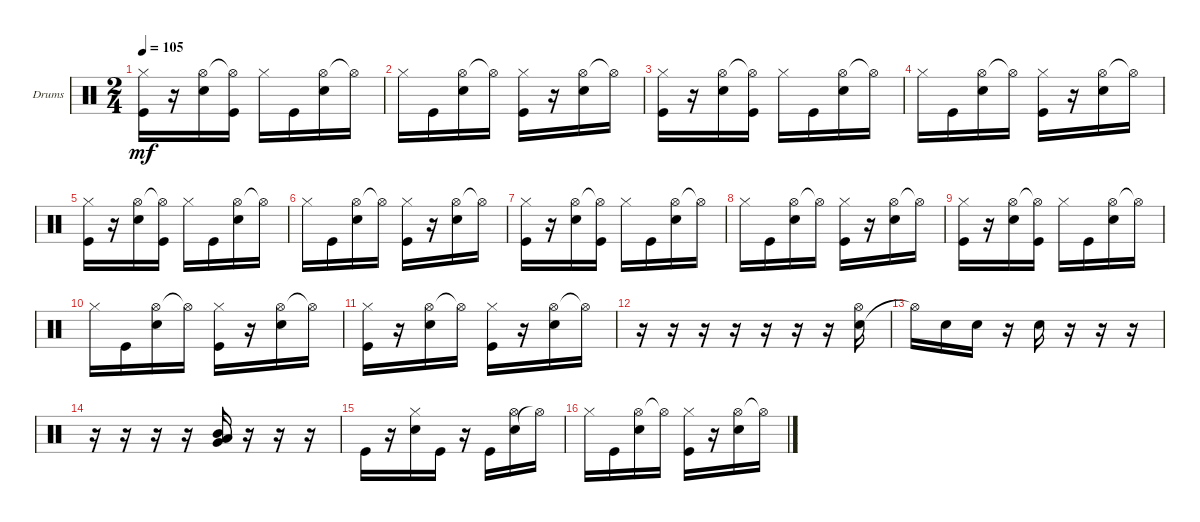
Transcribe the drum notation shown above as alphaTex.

\defaultSystemsLayout 4
\bracketExtendMode groupsimilarinstruments
\firstSystemTrackNameOrientation horizontal
\otherSystemsTrackNameOrientation horizontal
\track ("Godd" "Drums") {instrument percussion}
\staff {score}
\articulation defaults
\ts (2 4)
\tempo 105
\clef neutral
\ks c
("Hi-Hat (closed)" "Kick (hit)").16{dy mf} r.16 ("Hi-Hat (open)" "Snare (hit) 2").16 ("Hi-Hat (open)"{t} "Kick (hit)").16 "Hi-Hat (closed)".16 "Kick (hit)".16 ("Hi-Hat (open)" "Snare (hit) 2").16 "Hi-Hat (open)"{t}.16 |
"Hi-Hat (closed)".16 "Kick (hit)".16 ("Hi-Hat (open)" "Snare (hit) 2").16 "Hi-Hat (open)"{t}.16 ("Kick (hit)" "Hi-Hat (closed)").16 r.16 ("Hi-Hat (open)" "Snare (hit) 2").16 "Hi-Hat (open)"{t}.16 |
("Hi-Hat (closed)" "Kick (hit)").16 r.16 ("Hi-Hat (open)" "Snare (hit) 2").16 ("Hi-Hat (open)"{t} "Kick (hit)").16 "Hi-Hat (closed)".16 "Kick (hit)".16 ("Hi-Hat (open)" "Snare (hit) 2").16 "Hi-Hat (open)"{t}.16 |
"Hi-Hat (closed)".16 "Kick (hit)".16 ("Hi-Hat (open)" "Snare (hit) 2").16 "Hi-Hat (open)"{t}.16 ("Kick (hit)" "Hi-Hat (closed)").16 r.16 ("Hi-Hat (open)" "Snare (hit) 2").16 "Hi-Hat (open)"{t}.16 |
("Hi-Hat (closed)" "Kick (hit)").16 r.16 ("Hi-Hat (open)" "Snare (hit) 2").16 ("Hi-Hat (open)"{t} "Kick (hit)").16 "Hi-Hat (closed)".16 "Kick (hit)".16 ("Hi-Hat (open)" "Snare (hit) 2").16 "Hi-Hat (open)"{t}.16 |
"Hi-Hat (closed)".16 "Kick (hit)".16 ("Hi-Hat (open)" "Snare (hit) 2").16 "Hi-Hat (open)"{t}.16 ("Kick (hit)" "Hi-Hat (closed)").16 r.16 ("Hi-Hat (open)" "Snare (hit) 2").16 "Hi-Hat (open)"{t}.16 |
("Hi-Hat (closed)" "Kick (hit)").16 r.16 ("Hi-Hat (open)" "Snare (hit) 2").16 ("Hi-Hat (open)"{t} "Kick (hit)").16 "Hi-Hat (closed)".16 "Kick (hit)".16 ("Hi-Hat (open)" "Snare (hit) 2").16 "Hi-Hat (open)"{t}.16 |
"Hi-Hat (closed)".16 "Kick (hit)".16 ("Hi-Hat (open)" "Snare (hit) 2").16 "Hi-Hat (open)"{t}.16 ("Kick (hit)" "Hi-Hat (closed)").16 r.16 ("Hi-Hat (open)" "Snare (hit) 2").16 "Hi-Hat (open)"{t}.16 |
("Hi-Hat (closed)" "Kick (hit)").16 r.16 ("Hi-Hat (open)" "Snare (hit) 2").16 ("Hi-Hat (open)"{t} "Kick (hit)").16 "Hi-Hat (closed)".16 "Kick (hit)".16 ("Hi-Hat (open)" "Snare (hit) 2").16 "Hi-Hat (open)"{t}.16 |
"Hi-Hat (closed)".16 "Kick (hit)".16 ("Hi-Hat (open)" "Snare (hit) 2").16 "Hi-Hat (open)"{t}.16 ("Kick (hit)" "Hi-Hat (closed)").16 r.16 ("Hi-Hat (open)" "Snare (hit) 2").16 "Hi-Hat (open)"{t}.16 |
("Hi-Hat (closed)" "Kick (hit)").16 r.16 ("Hi-Hat (open)" "Snare (hit) 2").16 "Hi-Hat (open)"{t}.16 ("Hi-Hat (closed)" "Kick (hit)").16 r.16 ("Hi-Hat (open)" "Snare (hit) 2").16 "Hi-Hat (open)"{t}.16 |
r.16 r.16 r.16 r.16 r.16 r.16 r.16 ("Snare (hit) 2" "Hi-Hat (open)").16 |
"Hi-Hat (open)"{t}.16 "Snare (hit) 2".16 "Snare (hit) 2".16 r.16 "Snare (hit) 2".16 r.16 r.16 r.16 |
r.16 r.16 r.16 r.16 ("Very Low Tom (hit)" "Low Tom (hit)" "Mid Tom (hit)").16 r.16 r.16 r.16 |
"Kick (hit)".16 r.16 ("Snare (hit) 2" "Hi-Hat (closed)").16 "Kick (hit)".16 r.16 "Kick (hit)".16 ("Snare (hit) 2" "Hi-Hat (open)").16 "Hi-Hat (open)"{t}.16 |
"Hi-Hat (closed)".16 "Kick (hit)".16 ("Hi-Hat (open)" "Snare (hit) 2").16 "Hi-Hat (open)"{t}.16 ("Kick (hit)" "Hi-Hat (closed)").16 r.16 ("Hi-Hat (open)" "Snare (hit) 2").16 "Hi-Hat (open)"{t}.16
